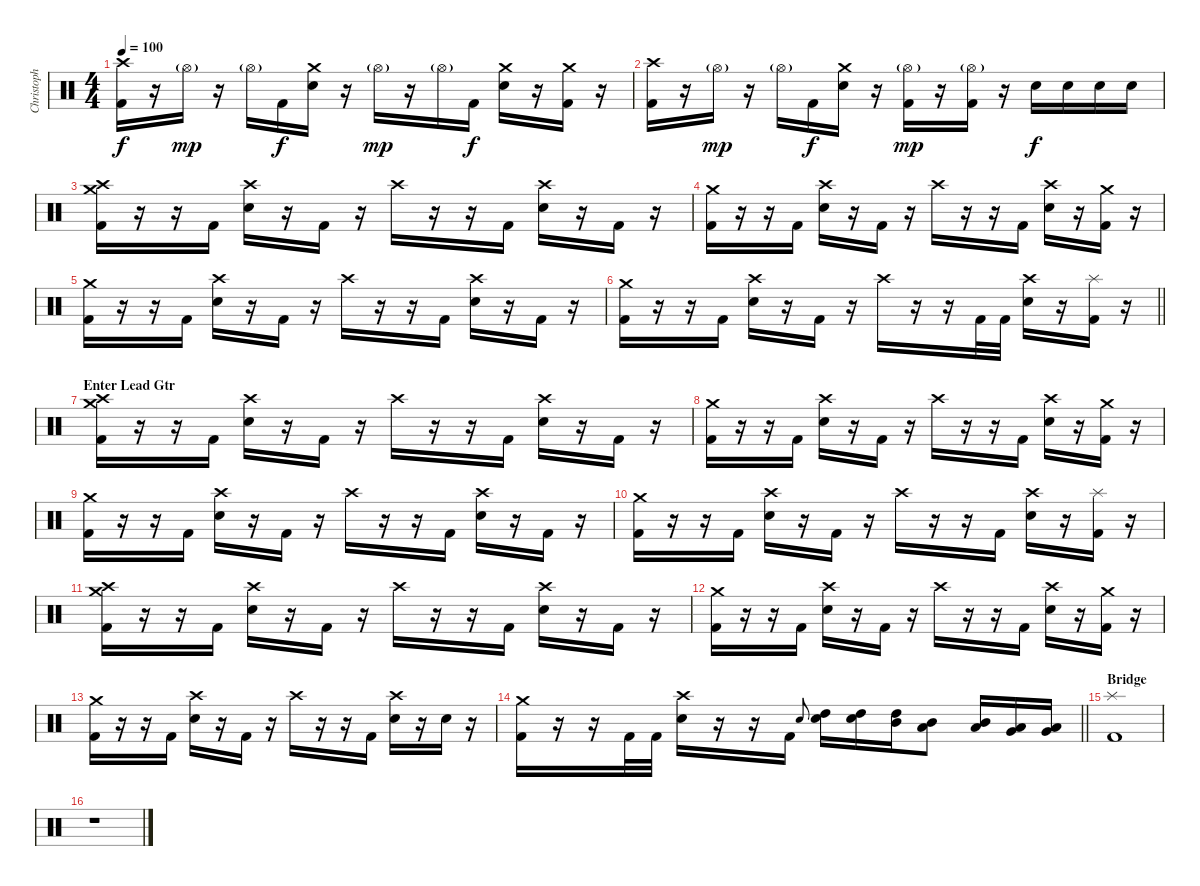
\track ("Christoph Schneider" "Christoph ") {instrument percussion}
\staff {score}
\articulation defaults
\ts (4 4)
\tempo 100
\clef neutral
\ks c
("Crash high (hit)" "Kick (hit) 2").16{dy f} r.16 "Hi-Hat (open)"{g}.16{dy mp} r.16 "Hi-Hat (open)"{g}.16 "Kick (hit) 2".16{dy f} ("Crash medium (hit)" "Snare (hit) 2").16 r.16 "Hi-Hat (open)"{g}.16{dy mp} r.16 "Hi-Hat (open)"{g}.16 "Kick (hit) 2".16{dy f} ("Crash medium (hit)" "Snare (hit) 2").16 r.16 ("Crash medium (hit)" "Kick (hit) 2").16 r.16 |
("Crash high (hit)" "Kick (hit) 2").16 r.16 "Hi-Hat (open)"{g}.16{dy mp} r.16 "Hi-Hat (open)"{g}.16 "Kick (hit) 2".16{dy f} ("Crash medium (hit)" "Snare (hit) 2").16 r.16 ("Hi-Hat (open)"{g} "Kick (hit) 2").16{dy mp} r.16 ("Hi-Hat (open)"{g} "Kick (hit) 2").16 r.16 "Snare (hit) 2".16{dy f} "Snare (hit) 2".16 "Snare (hit) 2".16 "Snare (hit) 2".16 |
("Crash high (hit)" "Crash medium (hit)" "Kick (hit) 2").16 r.16 r.16 "Kick (hit) 2".16 ("Crash high (hit)" "Snare (hit) 2").16 r.16 "Kick (hit) 2".16 r.16 "Crash high (hit)".16 r.16 r.16 "Kick (hit) 2".16 ("Crash high (hit)" "Snare (hit) 2").16 r.16 "Kick (hit) 2".16 r.16 |
("Crash medium (hit)" "Kick (hit) 2").16 r.16 r.16 "Kick (hit) 2".16 ("Crash high (hit)" "Snare (hit) 2").16 r.16 "Kick (hit) 2".16 r.16 "Crash high (hit)".16 r.16 r.16 "Kick (hit) 2".16 ("Crash high (hit)" "Snare (hit) 2").16 r.16 ("Crash medium (hit)" "Kick (hit) 2").16 r.16 |
("Crash medium (hit)" "Kick (hit) 2").16 r.16 r.16 "Kick (hit) 2".16 ("Crash high (hit)" "Snare (hit) 2").16 r.16 "Kick (hit) 2".16 r.16 "Crash high (hit)".16 r.16 r.16 "Kick (hit) 2".16 ("Crash high (hit)" "Snare (hit) 2").16 r.16 "Kick (hit) 2".16 r.16 |
\barLineRight lightlight
("Crash medium (hit)" "Kick (hit) 2").16 r.16 r.16 "Kick (hit) 2".16 ("Crash high (hit)" "Snare (hit) 2").16 r.16 "Kick (hit) 2".16 r.16 "Crash high (hit)".16 r.16 r.16 "Kick (hit) 2".32 "Kick (hit) 2".32 ("Crash high (hit)" "Snare (hit) 2").16 r.16 ("Splash (hit)" "Kick (hit) 2").16 r.16 |
\section ("" "Enter Lead Gtr")
("Crash high (hit)" "Crash medium (hit)" "Kick (hit) 2").16 r.16 r.16 "Kick (hit) 2".16 ("Crash high (hit)" "Snare (hit) 2").16 r.16 "Kick (hit) 2".16 r.16 "Crash high (hit)".16 r.16 r.16 "Kick (hit) 2".16 ("Crash high (hit)" "Snare (hit) 2").16 r.16 "Kick (hit) 2".16 r.16 |
("Crash medium (hit)" "Kick (hit) 2").16 r.16 r.16 "Kick (hit) 2".16 ("Crash high (hit)" "Snare (hit) 2").16 r.16 "Kick (hit) 2".16 r.16 "Crash high (hit)".16 r.16 r.16 "Kick (hit) 2".16 ("Crash high (hit)" "Snare (hit) 2").16 r.16 ("Crash medium (hit)" "Kick (hit) 2").16 r.16 |
("Crash medium (hit)" "Kick (hit) 2").16 r.16 r.16 "Kick (hit) 2".16 ("Crash high (hit)" "Snare (hit) 2").16 r.16 "Kick (hit) 2".16 r.16 "Crash high (hit)".16 r.16 r.16 "Kick (hit) 2".16 ("Crash high (hit)" "Snare (hit) 2").16 r.16 "Kick (hit) 2".16 r.16 |
("Crash medium (hit)" "Kick (hit) 2").16 r.16 r.16 "Kick (hit) 2".16 ("Crash high (hit)" "Snare (hit) 2").16 r.16 "Kick (hit) 2".16 r.16 "Crash high (hit)".16 r.16 r.16 "Kick (hit) 2".16 ("Crash high (hit)" "Snare (hit) 2").16 r.16 ("Splash (hit)" "Kick (hit) 2").16 r.16 |
("Crash high (hit)" "Crash medium (hit)" "Kick (hit) 2").16 r.16 r.16 "Kick (hit) 2".16 ("Crash high (hit)" "Snare (hit) 2").16 r.16 "Kick (hit) 2".16 r.16 "Crash high (hit)".16 r.16 r.16 "Kick (hit) 2".16 ("Crash high (hit)" "Snare (hit) 2").16 r.16 "Kick (hit) 2".16 r.16 |
("Crash medium (hit)" "Kick (hit) 2").16 r.16 r.16 "Kick (hit) 2".16 ("Crash high (hit)" "Snare (hit) 2").16 r.16 "Kick (hit) 2".16 r.16 "Crash high (hit)".16 r.16 r.16 "Kick (hit) 2".16 ("Crash high (hit)" "Snare (hit) 2").16 r.16 ("Crash medium (hit)" "Kick (hit) 2").16 r.16 |
("Crash medium (hit)" "Kick (hit) 2").16 r.16 r.16 "Kick (hit) 2".16 ("Crash high (hit)" "Snare (hit) 2").16 r.16 "Kick (hit) 2".16 r.16 "Crash high (hit)".16 r.16 r.16 "Kick (hit) 2".16 ("Crash high (hit)" "Snare (hit) 2").16 r.16 "Snare (hit) 2".16 r.16 |
\barLineRight lightlight
("Crash medium (hit)" "Kick (hit) 2").16 r.16 r.16 "Kick (hit) 2".32 "Kick (hit) 2".32 ("Crash high (hit)" "Snare (hit) 2").16 r.16 r.16 "Kick (hit) 2".16 "Snare (hit) 2".8{gr onbeat} ("High Tom (hit)" "Snare (hit) 2").16 ("High Tom (hit)" "Snare (hit) 2").16 ("High Tom (hit)" "Mid Tom (hit)").16 ("Mid Tom (hit)" "Low Tom (hit)").8 ("Mid Tom (hit)" "Low Tom (hit)").16 ("Low Tom (hit)" "Very Low Tom (hit)").16 ("Very Low Tom (hit)" "Low Floor Tom (hit)").16 |
\section ("" "Bridge")
("Splash (hit)" "Kick (hit) 2").1 |
r.1
